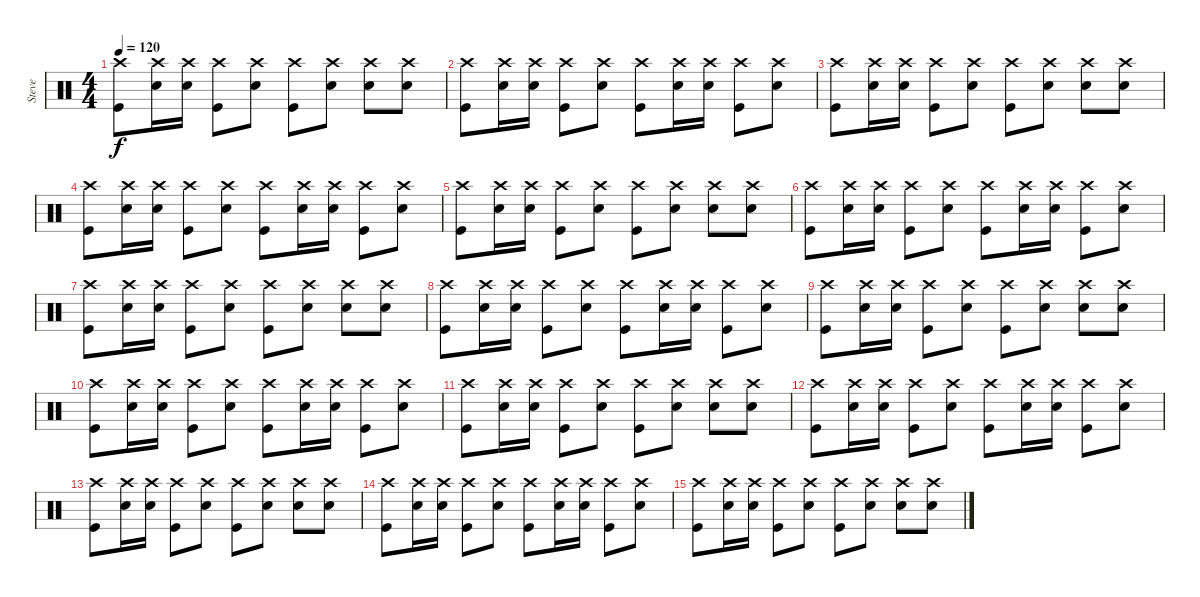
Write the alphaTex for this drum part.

\track ("Steve" "Steve") {instrument percussion}
\staff {score}
\articulation defaults
\ts (4 4)
\tempo 120
\clef neutral
\ks c
("Crash high (hit)" "Kick (hit)").8{dy f} ("Crash high (hit)" "Snare (hit) 2").16 ("Crash high (hit)" "Snare (hit) 2").16 ("Crash high (hit)" "Kick (hit)").8 ("Crash high (hit)" "Snare (hit) 2").8 ("Crash high (hit)" "Kick (hit)").8 ("Crash high (hit)" "Snare (hit) 2").8 ("Crash high (hit)" "Snare (hit) 2").8 ("Crash high (hit)" "Snare (hit) 2").8 |
("Crash high (hit)" "Kick (hit)").8 ("Crash high (hit)" "Snare (hit) 2").16 ("Crash high (hit)" "Snare (hit) 2").16 ("Crash high (hit)" "Kick (hit)").8 ("Crash high (hit)" "Snare (hit) 2").8 ("Crash high (hit)" "Kick (hit)").8 ("Crash high (hit)" "Snare (hit) 2").16 ("Crash high (hit)" "Snare (hit) 2").16 ("Crash high (hit)" "Kick (hit)").8 ("Crash high (hit)" "Snare (hit) 2").8 |
("Crash high (hit)" "Kick (hit)").8 ("Crash high (hit)" "Snare (hit) 2").16 ("Crash high (hit)" "Snare (hit) 2").16 ("Crash high (hit)" "Kick (hit)").8 ("Crash high (hit)" "Snare (hit) 2").8 ("Crash high (hit)" "Kick (hit)").8 ("Crash high (hit)" "Snare (hit) 2").8 ("Crash high (hit)" "Snare (hit) 2").8 ("Crash high (hit)" "Snare (hit) 2").8 |
("Crash high (hit)" "Kick (hit)").8 ("Crash high (hit)" "Snare (hit) 2").16 ("Crash high (hit)" "Snare (hit) 2").16 ("Crash high (hit)" "Kick (hit)").8 ("Crash high (hit)" "Snare (hit) 2").8 ("Crash high (hit)" "Kick (hit)").8 ("Crash high (hit)" "Snare (hit) 2").16 ("Crash high (hit)" "Snare (hit) 2").16 ("Crash high (hit)" "Kick (hit)").8 ("Crash high (hit)" "Snare (hit) 2").8 |
("Crash high (hit)" "Kick (hit)").8 ("Crash high (hit)" "Snare (hit) 2").16 ("Crash high (hit)" "Snare (hit) 2").16 ("Crash high (hit)" "Kick (hit)").8 ("Crash high (hit)" "Snare (hit) 2").8 ("Crash high (hit)" "Kick (hit)").8 ("Crash high (hit)" "Snare (hit) 2").8 ("Crash high (hit)" "Snare (hit) 2").8 ("Crash high (hit)" "Snare (hit) 2").8 |
("Crash high (hit)" "Kick (hit)").8 ("Crash high (hit)" "Snare (hit) 2").16 ("Crash high (hit)" "Snare (hit) 2").16 ("Crash high (hit)" "Kick (hit)").8 ("Crash high (hit)" "Snare (hit) 2").8 ("Crash high (hit)" "Kick (hit)").8 ("Crash high (hit)" "Snare (hit) 2").16 ("Crash high (hit)" "Snare (hit) 2").16 ("Crash high (hit)" "Kick (hit)").8 ("Crash high (hit)" "Snare (hit) 2").8 |
("Crash high (hit)" "Kick (hit)").8 ("Crash high (hit)" "Snare (hit) 2").16 ("Crash high (hit)" "Snare (hit) 2").16 ("Crash high (hit)" "Kick (hit)").8 ("Crash high (hit)" "Snare (hit) 2").8 ("Crash high (hit)" "Kick (hit)").8 ("Crash high (hit)" "Snare (hit) 2").8 ("Crash high (hit)" "Snare (hit) 2").8 ("Crash high (hit)" "Snare (hit) 2").8 |
("Crash high (hit)" "Kick (hit)").8 ("Crash high (hit)" "Snare (hit) 2").16 ("Crash high (hit)" "Snare (hit) 2").16 ("Crash high (hit)" "Kick (hit)").8 ("Crash high (hit)" "Snare (hit) 2").8 ("Crash high (hit)" "Kick (hit)").8 ("Crash high (hit)" "Snare (hit) 2").16 ("Crash high (hit)" "Snare (hit) 2").16 ("Crash high (hit)" "Kick (hit)").8 ("Crash high (hit)" "Snare (hit) 2").8 |
("Crash high (hit)" "Kick (hit)").8 ("Crash high (hit)" "Snare (hit) 2").16 ("Crash high (hit)" "Snare (hit) 2").16 ("Crash high (hit)" "Kick (hit)").8 ("Crash high (hit)" "Snare (hit) 2").8 ("Crash high (hit)" "Kick (hit)").8 ("Crash high (hit)" "Snare (hit) 2").8 ("Crash high (hit)" "Snare (hit) 2").8 ("Crash high (hit)" "Snare (hit) 2").8 |
("Crash high (hit)" "Kick (hit)").8 ("Crash high (hit)" "Snare (hit) 2").16 ("Crash high (hit)" "Snare (hit) 2").16 ("Crash high (hit)" "Kick (hit)").8 ("Crash high (hit)" "Snare (hit) 2").8 ("Crash high (hit)" "Kick (hit)").8 ("Crash high (hit)" "Snare (hit) 2").16 ("Crash high (hit)" "Snare (hit) 2").16 ("Crash high (hit)" "Kick (hit)").8 ("Crash high (hit)" "Snare (hit) 2").8 |
("Crash high (hit)" "Kick (hit)").8 ("Crash high (hit)" "Snare (hit) 2").16 ("Crash high (hit)" "Snare (hit) 2").16 ("Crash high (hit)" "Kick (hit)").8 ("Crash high (hit)" "Snare (hit) 2").8 ("Crash high (hit)" "Kick (hit)").8 ("Crash high (hit)" "Snare (hit) 2").8 ("Crash high (hit)" "Snare (hit) 2").8 ("Crash high (hit)" "Snare (hit) 2").8 |
("Crash high (hit)" "Kick (hit)").8 ("Crash high (hit)" "Snare (hit) 2").16 ("Crash high (hit)" "Snare (hit) 2").16 ("Crash high (hit)" "Kick (hit)").8 ("Crash high (hit)" "Snare (hit) 2").8 ("Crash high (hit)" "Kick (hit)").8 ("Crash high (hit)" "Snare (hit) 2").16 ("Crash high (hit)" "Snare (hit) 2").16 ("Crash high (hit)" "Kick (hit)").8 ("Crash high (hit)" "Snare (hit) 2").8 |
("Crash high (hit)" "Kick (hit)").8 ("Crash high (hit)" "Snare (hit) 2").16 ("Crash high (hit)" "Snare (hit) 2").16 ("Crash high (hit)" "Kick (hit)").8 ("Crash high (hit)" "Snare (hit) 2").8 ("Crash high (hit)" "Kick (hit)").8 ("Crash high (hit)" "Snare (hit) 2").8 ("Crash high (hit)" "Snare (hit) 2").8 ("Crash high (hit)" "Snare (hit) 2").8 |
("Crash high (hit)" "Kick (hit)").8 ("Crash high (hit)" "Snare (hit) 2").16 ("Crash high (hit)" "Snare (hit) 2").16 ("Crash high (hit)" "Kick (hit)").8 ("Crash high (hit)" "Snare (hit) 2").8 ("Crash high (hit)" "Kick (hit)").8 ("Crash high (hit)" "Snare (hit) 2").16 ("Crash high (hit)" "Snare (hit) 2").16 ("Crash high (hit)" "Kick (hit)").8 ("Crash high (hit)" "Snare (hit) 2").8 |
("Crash high (hit)" "Kick (hit)").8 ("Crash high (hit)" "Snare (hit) 2").16 ("Crash high (hit)" "Snare (hit) 2").16 ("Crash high (hit)" "Kick (hit)").8 ("Crash high (hit)" "Snare (hit) 2").8 ("Crash high (hit)" "Kick (hit)").8 ("Crash high (hit)" "Snare (hit) 2").8 ("Crash high (hit)" "Snare (hit) 2").8 ("Crash high (hit)" "Snare (hit) 2").8
